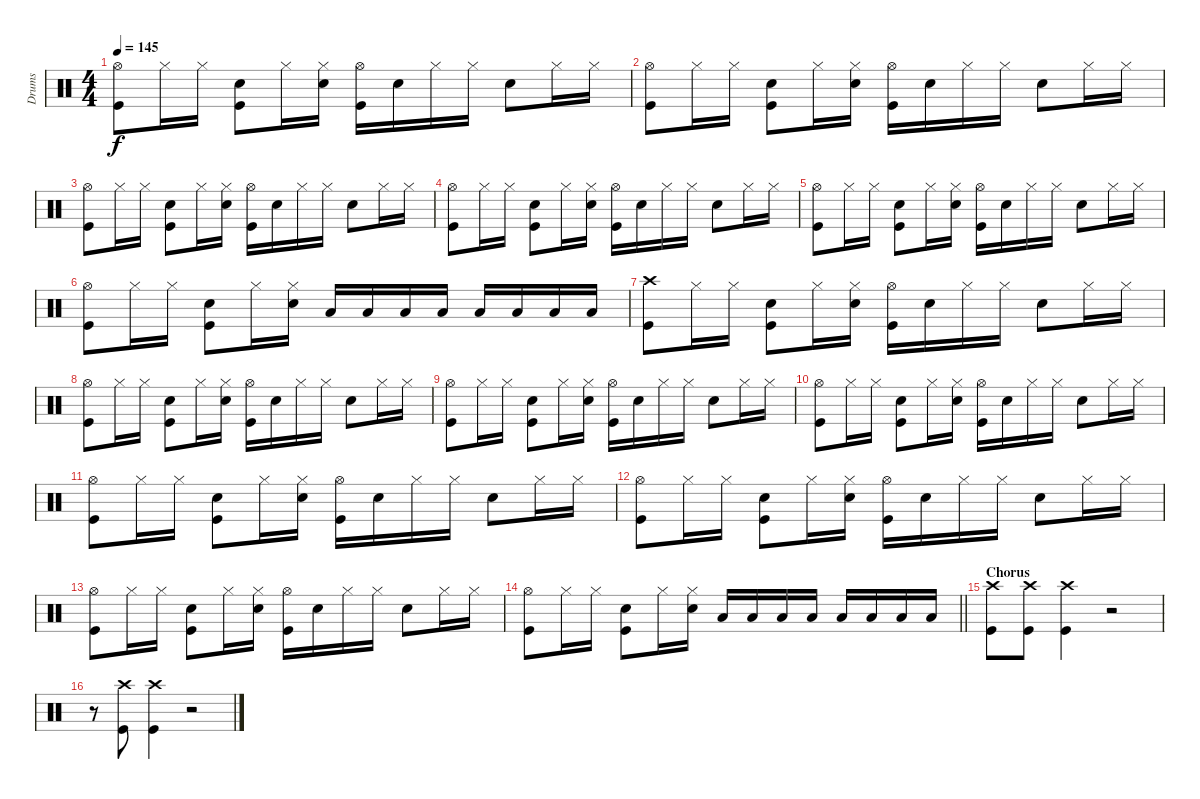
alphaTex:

\track ("Drums" "Drums") {instrument percussion}
\staff {score}
\articulation defaults
\ts (4 4)
\tempo 145
\clef neutral
\ks c
("Hi-Hat (open)" "Kick (hit)").8{dy f} "Hi-Hat (closed)".16 "Hi-Hat (closed)".16 ("Electric Snare (hit)" "Kick (hit)").8 "Hi-Hat (closed)".16 ("Hi-Hat (closed)" "Electric Snare (hit)").16 ("Hi-Hat (open)" "Kick (hit)").16 "Electric Snare (hit)".16 "Hi-Hat (closed)".16 "Hi-Hat (closed)".16 "Electric Snare (hit)".8 "Hi-Hat (closed)".16 "Hi-Hat (closed)".16 |
("Hi-Hat (open)" "Kick (hit)").8 "Hi-Hat (closed)".16 "Hi-Hat (closed)".16 ("Electric Snare (hit)" "Kick (hit)").8 "Hi-Hat (closed)".16 ("Hi-Hat (closed)" "Electric Snare (hit)").16 ("Hi-Hat (open)" "Kick (hit)").16 "Electric Snare (hit)".16 "Hi-Hat (closed)".16 "Hi-Hat (closed)".16 "Electric Snare (hit)".8 "Hi-Hat (closed)".16 "Hi-Hat (closed)".16 |
("Hi-Hat (open)" "Kick (hit)").8 "Hi-Hat (closed)".16 "Hi-Hat (closed)".16 ("Electric Snare (hit)" "Kick (hit)").8 "Hi-Hat (closed)".16 ("Hi-Hat (closed)" "Electric Snare (hit)").16 ("Hi-Hat (open)" "Kick (hit)").16 "Electric Snare (hit)".16 "Hi-Hat (closed)".16 "Hi-Hat (closed)".16 "Electric Snare (hit)".8 "Hi-Hat (closed)".16 "Hi-Hat (closed)".16 |
("Hi-Hat (open)" "Kick (hit)").8 "Hi-Hat (closed)".16 "Hi-Hat (closed)".16 ("Electric Snare (hit)" "Kick (hit)").8 "Hi-Hat (closed)".16 ("Hi-Hat (closed)" "Electric Snare (hit)").16 ("Hi-Hat (open)" "Kick (hit)").16 "Electric Snare (hit)".16 "Hi-Hat (closed)".16 "Hi-Hat (closed)".16 "Electric Snare (hit)".8 "Hi-Hat (closed)".16 "Hi-Hat (closed)".16 |
("Hi-Hat (open)" "Kick (hit)").8 "Hi-Hat (closed)".16 "Hi-Hat (closed)".16 ("Electric Snare (hit)" "Kick (hit)").8 "Hi-Hat (closed)".16 ("Hi-Hat (closed)" "Electric Snare (hit)").16 ("Hi-Hat (open)" "Kick (hit)").16 "Electric Snare (hit)".16 "Hi-Hat (closed)".16 "Hi-Hat (closed)".16 "Electric Snare (hit)".8 "Hi-Hat (closed)".16 "Hi-Hat (closed)".16 |
("Hi-Hat (open)" "Kick (hit)").8 "Hi-Hat (closed)".16 "Hi-Hat (closed)".16 ("Electric Snare (hit)" "Kick (hit)").8 "Hi-Hat (closed)".16 ("Hi-Hat (closed)" "Electric Snare (hit)").16 "Low Tom (hit)".16 "Low Tom (hit)".16 "Low Tom (hit)".16 "Low Tom (hit)".16 "Low Tom (hit)".16 "Low Tom (hit)".16 "Low Tom (hit)".16 "Low Tom (hit)".16 |
("Crash high (hit)" "Kick (hit)").8 "Hi-Hat (closed)".16 "Hi-Hat (closed)".16 ("Electric Snare (hit)" "Kick (hit)").8 "Hi-Hat (closed)".16 ("Hi-Hat (closed)" "Electric Snare (hit)").16 ("Hi-Hat (open)" "Kick (hit)").16 "Electric Snare (hit)".16 "Hi-Hat (closed)".16 "Hi-Hat (closed)".16 "Electric Snare (hit)".8 "Hi-Hat (closed)".16 "Hi-Hat (closed)".16 |
("Hi-Hat (open)" "Kick (hit)").8 "Hi-Hat (closed)".16 "Hi-Hat (closed)".16 ("Electric Snare (hit)" "Kick (hit)").8 "Hi-Hat (closed)".16 ("Hi-Hat (closed)" "Electric Snare (hit)").16 ("Hi-Hat (open)" "Kick (hit)").16 "Electric Snare (hit)".16 "Hi-Hat (closed)".16 "Hi-Hat (closed)".16 "Electric Snare (hit)".8 "Hi-Hat (closed)".16 "Hi-Hat (closed)".16 |
("Hi-Hat (open)" "Kick (hit)").8 "Hi-Hat (closed)".16 "Hi-Hat (closed)".16 ("Electric Snare (hit)" "Kick (hit)").8 "Hi-Hat (closed)".16 ("Hi-Hat (closed)" "Electric Snare (hit)").16 ("Hi-Hat (open)" "Kick (hit)").16 "Electric Snare (hit)".16 "Hi-Hat (closed)".16 "Hi-Hat (closed)".16 "Electric Snare (hit)".8 "Hi-Hat (closed)".16 "Hi-Hat (closed)".16 |
("Hi-Hat (open)" "Kick (hit)").8 "Hi-Hat (closed)".16 "Hi-Hat (closed)".16 ("Electric Snare (hit)" "Kick (hit)").8 "Hi-Hat (closed)".16 ("Hi-Hat (closed)" "Electric Snare (hit)").16 ("Hi-Hat (open)" "Kick (hit)").16 "Electric Snare (hit)".16 "Hi-Hat (closed)".16 "Hi-Hat (closed)".16 "Electric Snare (hit)".8 "Hi-Hat (closed)".16 "Hi-Hat (closed)".16 |
("Hi-Hat (open)" "Kick (hit)").8 "Hi-Hat (closed)".16 "Hi-Hat (closed)".16 ("Electric Snare (hit)" "Kick (hit)").8 "Hi-Hat (closed)".16 ("Hi-Hat (closed)" "Electric Snare (hit)").16 ("Hi-Hat (open)" "Kick (hit)").16 "Electric Snare (hit)".16 "Hi-Hat (closed)".16 "Hi-Hat (closed)".16 "Electric Snare (hit)".8 "Hi-Hat (closed)".16 "Hi-Hat (closed)".16 |
("Hi-Hat (open)" "Kick (hit)").8 "Hi-Hat (closed)".16 "Hi-Hat (closed)".16 ("Electric Snare (hit)" "Kick (hit)").8 "Hi-Hat (closed)".16 ("Hi-Hat (closed)" "Electric Snare (hit)").16 ("Hi-Hat (open)" "Kick (hit)").16 "Electric Snare (hit)".16 "Hi-Hat (closed)".16 "Hi-Hat (closed)".16 "Electric Snare (hit)".8 "Hi-Hat (closed)".16 "Hi-Hat (closed)".16 |
("Hi-Hat (open)" "Kick (hit)").8 "Hi-Hat (closed)".16 "Hi-Hat (closed)".16 ("Electric Snare (hit)" "Kick (hit)").8 "Hi-Hat (closed)".16 ("Hi-Hat (closed)" "Electric Snare (hit)").16 ("Hi-Hat (open)" "Kick (hit)").16 "Electric Snare (hit)".16 "Hi-Hat (closed)".16 "Hi-Hat (closed)".16 "Electric Snare (hit)".8 "Hi-Hat (closed)".16 "Hi-Hat (closed)".16 |
\barLineRight lightlight
("Hi-Hat (open)" "Kick (hit)").8 "Hi-Hat (closed)".16 "Hi-Hat (closed)".16 ("Electric Snare (hit)" "Kick (hit)").8 "Hi-Hat (closed)".16 ("Hi-Hat (closed)" "Electric Snare (hit)").16 "Low Tom (hit)".16 "Low Tom (hit)".16 "Low Tom (hit)".16 "Low Tom (hit)".16 "Low Tom (hit)".16 "Low Tom (hit)".16 "Low Tom (hit)".16 "Low Tom (hit)".16 |
\section ("" "Chorus")
("Crash high (hit)" "Kick (hit)").8 ("Crash high (hit)" "Kick (hit)").8 ("Crash high (hit)" "Kick (hit)").4 r.2 |
r.8 ("Crash high (hit)" "Kick (hit)").8 ("Crash high (hit)" "Kick (hit)").4 r.2
